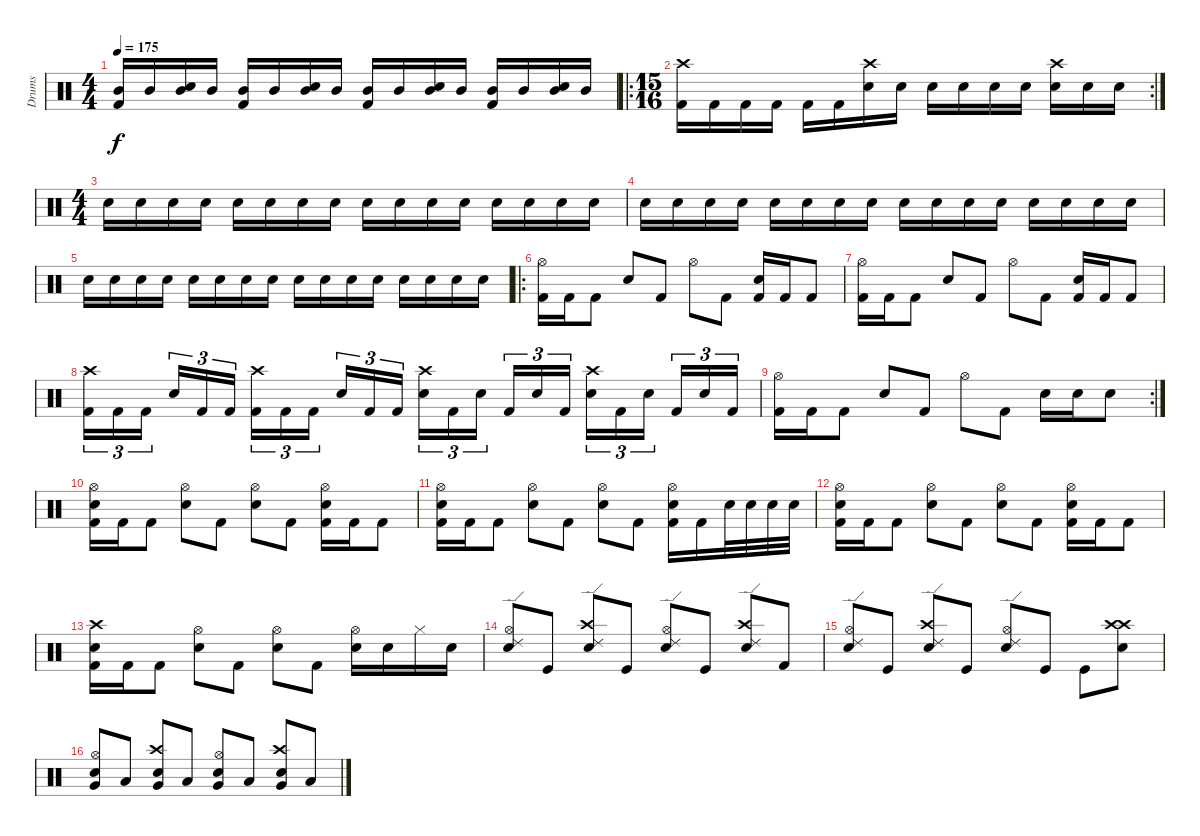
\track ("Drums" "Drums") {instrument percussion}
\staff {score}
\articulation defaults
\ts (4 4)
\tempo 175
\clef neutral
\ks c
("Kick (hit) 2" "Mid Tom (hit)").16{dy f} "Mid Tom (hit)".16 ("Electric Snare (hit)" "Mid Tom (hit)").16 "Mid Tom (hit)".16 ("Kick (hit) 2" "Mid Tom (hit)").16 "Mid Tom (hit)".16 ("Electric Snare (hit)" "Mid Tom (hit)").16 "Mid Tom (hit)".16 ("Kick (hit) 2" "Mid Tom (hit)").16 "Mid Tom (hit)".16 ("Electric Snare (hit)" "Mid Tom (hit)").16 "Mid Tom (hit)".16 ("Kick (hit) 2" "Mid Tom (hit)").16 "Mid Tom (hit)".16 ("Electric Snare (hit)" "Mid Tom (hit)").16 "Mid Tom (hit)".16 |
\ro
\rc 2
\ts (15 16)
("Crash high (hit)" "Kick (hit) 2").16 "Kick (hit) 2".16 "Kick (hit) 2".16 "Kick (hit) 2".16 "Kick (hit) 2".16 "Kick (hit) 2".16 ("Crash high (hit)" "Electric Snare (hit)").16 "Electric Snare (hit)".16 "Electric Snare (hit)".16 "Electric Snare (hit)".16 "Electric Snare (hit)".16 "Electric Snare (hit)".16 ("Crash high (hit)" "Electric Snare (hit)").16 "Electric Snare (hit)".16 "Electric Snare (hit)".16 |
\ts (4 4)
"Electric Snare (hit)".16 "Electric Snare (hit)".16 "Electric Snare (hit)".16 "Electric Snare (hit)".16 "Electric Snare (hit)".16 "Electric Snare (hit)".16 "Electric Snare (hit)".16 "Electric Snare (hit)".16 "Electric Snare (hit)".16 "Electric Snare (hit)".16 "Electric Snare (hit)".16 "Electric Snare (hit)".16 "Electric Snare (hit)".16 "Electric Snare (hit)".16 "Electric Snare (hit)".16 "Electric Snare (hit)".16 |
"Electric Snare (hit)".16 "Electric Snare (hit)".16 "Electric Snare (hit)".16 "Electric Snare (hit)".16 "Electric Snare (hit)".16 "Electric Snare (hit)".16 "Electric Snare (hit)".16 "Electric Snare (hit)".16 "Electric Snare (hit)".16 "Electric Snare (hit)".16 "Electric Snare (hit)".16 "Electric Snare (hit)".16 "Electric Snare (hit)".16 "Electric Snare (hit)".16 "Electric Snare (hit)".16 "Electric Snare (hit)".16 |
"Electric Snare (hit)".16 "Electric Snare (hit)".16 "Electric Snare (hit)".16 "Electric Snare (hit)".16 "Electric Snare (hit)".16 "Electric Snare (hit)".16 "Electric Snare (hit)".16 "Electric Snare (hit)".16 "Electric Snare (hit)".16 "Electric Snare (hit)".16 "Electric Snare (hit)".16 "Electric Snare (hit)".16 "Electric Snare (hit)".16 "Electric Snare (hit)".16 "Electric Snare (hit)".16 "Electric Snare (hit)".16 |
\ro
("Hi-Hat (open)" "Kick (hit) 2").16 "Kick (hit) 2".16 "Kick (hit) 2".8 "Electric Snare (hit)".8 "Kick (hit) 2".8 "Hi-Hat (open)".8 "Kick (hit) 2".8 ("Electric Snare (hit)" "Kick (hit) 2").16 "Kick (hit) 2".16 "Kick (hit) 2".8 |
("Hi-Hat (open)" "Kick (hit) 2").16 "Kick (hit) 2".16 "Kick (hit) 2".8 "Electric Snare (hit)".8 "Kick (hit) 2".8 "Hi-Hat (open)".8 "Kick (hit) 2".8 ("Electric Snare (hit)" "Kick (hit) 2").16 "Kick (hit) 2".16 "Kick (hit) 2".8 |
("Crash high (hit)" "Kick (hit) 2").16{tu (3 2)} "Kick (hit) 2".16{tu (3 2)} "Kick (hit) 2".16{tu (3 2)} "Electric Snare (hit)".16{tu (3 2)} "Kick (hit) 2".16{tu (3 2)} "Kick (hit) 2".16{tu (3 2)} ("Crash high (hit)" "Kick (hit) 2").16{tu (3 2)} "Kick (hit) 2".16{tu (3 2)} "Kick (hit) 2".16{tu (3 2)} "Electric Snare (hit)".16{tu (3 2)} "Kick (hit) 2".16{tu (3 2)} "Kick (hit) 2".16{tu (3 2)} ("Crash high (hit)" "Electric Snare (hit)").16{tu (3 2)} "Kick (hit) 2".16{tu (3 2)} "Electric Snare (hit)".16{tu (3 2)} "Kick (hit) 2".16{tu (3 2)} "Electric Snare (hit)".16{tu (3 2)} "Kick (hit) 2".16{tu (3 2)} ("Crash high (hit)" "Electric Snare (hit)").16{tu (3 2)} "Kick (hit) 2".16{tu (3 2)} "Electric Snare (hit)".16{tu (3 2)} "Kick (hit) 2".16{tu (3 2)} "Electric Snare (hit)".16{tu (3 2)} "Kick (hit) 2".16{tu (3 2)} |
\rc 2
("Hi-Hat (open)" "Kick (hit) 2").16 "Kick (hit) 2".16 "Kick (hit) 2".8 "Electric Snare (hit)".8 "Kick (hit) 2".8 "Hi-Hat (open)".8 "Kick (hit) 2".8 "Electric Snare (hit)".16 "Electric Snare (hit)".16 "Electric Snare (hit)".8 |
("Electric Snare (hit)" "Kick (hit) 2" "Hi-Hat (open)").16 "Kick (hit) 2".16 "Kick (hit) 2".8 ("Electric Snare (hit)" "Hi-Hat (open)").8 "Kick (hit) 2".8 ("Electric Snare (hit)" "Hi-Hat (open)").8 "Kick (hit) 2".8 ("Electric Snare (hit)" "Kick (hit) 2" "Hi-Hat (open)").16 "Kick (hit) 2".16 "Kick (hit) 2".8 |
("Electric Snare (hit)" "Kick (hit) 2" "Hi-Hat (open)").16 "Kick (hit) 2".16 "Kick (hit) 2".8 ("Electric Snare (hit)" "Hi-Hat (open)").8 "Kick (hit) 2".8 ("Electric Snare (hit)" "Hi-Hat (open)").8 "Kick (hit) 2".8 ("Electric Snare (hit)" "Kick (hit) 2" "Hi-Hat (open)").16 "Kick (hit) 2".16 "Electric Snare (hit)".32 "Electric Snare (hit)".32 "Electric Snare (hit)".32 "Electric Snare (hit)".32 |
("Electric Snare (hit)" "Kick (hit) 2" "Hi-Hat (open)").16 "Kick (hit) 2".16 "Kick (hit) 2".8 ("Electric Snare (hit)" "Hi-Hat (open)").8 "Kick (hit) 2".8 ("Electric Snare (hit)" "Hi-Hat (open)").8 "Kick (hit) 2".8 ("Electric Snare (hit)" "Kick (hit) 2" "Hi-Hat (open)").16 "Kick (hit) 2".16 "Kick (hit) 2".8 |
("Electric Snare (hit)" "Kick (hit) 2" "Crash high (hit)").16 "Kick (hit) 2".16 "Kick (hit) 2".8 ("Electric Snare (hit)" "Hi-Hat (open)").8 "Kick (hit) 2".8 ("Electric Snare (hit)" "Hi-Hat (open)").8 "Kick (hit) 2".8 ("Electric Snare (hit)" "Hi-Hat (open)").16 "Electric Snare (hit)".16 "Hi-Hat (closed)".16 "Electric Snare (hit)".16 |
("Hi-Hat (open)" "Ride (edge) 2" "Electric Snare (hit)").8 "Kick (hit)".8 ("Crash high (hit)" "Ride (edge) 2" "Electric Snare (hit)").8 "Kick (hit)".8 ("Hi-Hat (open)" "Ride (edge) 2" "Electric Snare (hit)").8 "Kick (hit)".8 ("Crash high (hit)" "Ride (edge) 2" "Electric Snare (hit)").8 "Kick (hit) 2".8 |
("Hi-Hat (open)" "Ride (edge) 2" "Electric Snare (hit)").8 "Kick (hit)".8 ("Crash high (hit)" "Ride (edge) 2" "Electric Snare (hit)").8 "Kick (hit)".8 ("Hi-Hat (open)" "Ride (edge) 2" "Electric Snare (hit)").8 "Kick (hit)".8 "Kick (hit)".8 ("Crash high (hit)" "Crash high (hit)" "Electric Snare (hit)").8 |
("Hi-Hat (open)" "Electric Snare (hit)" "Very Low Tom (hit)").8 "Low Floor Tom (hit)".8 ("Crash high (hit)" "Electric Snare (hit)" "Very Low Tom (hit)").8 "Low Floor Tom (hit)".8 ("Hi-Hat (open)" "Electric Snare (hit)" "Very Low Tom (hit)").8 "Low Floor Tom (hit)".8 ("Crash high (hit)" "Electric Snare (hit)" "Very Low Tom (hit)").8 "Low Floor Tom (hit)".8
